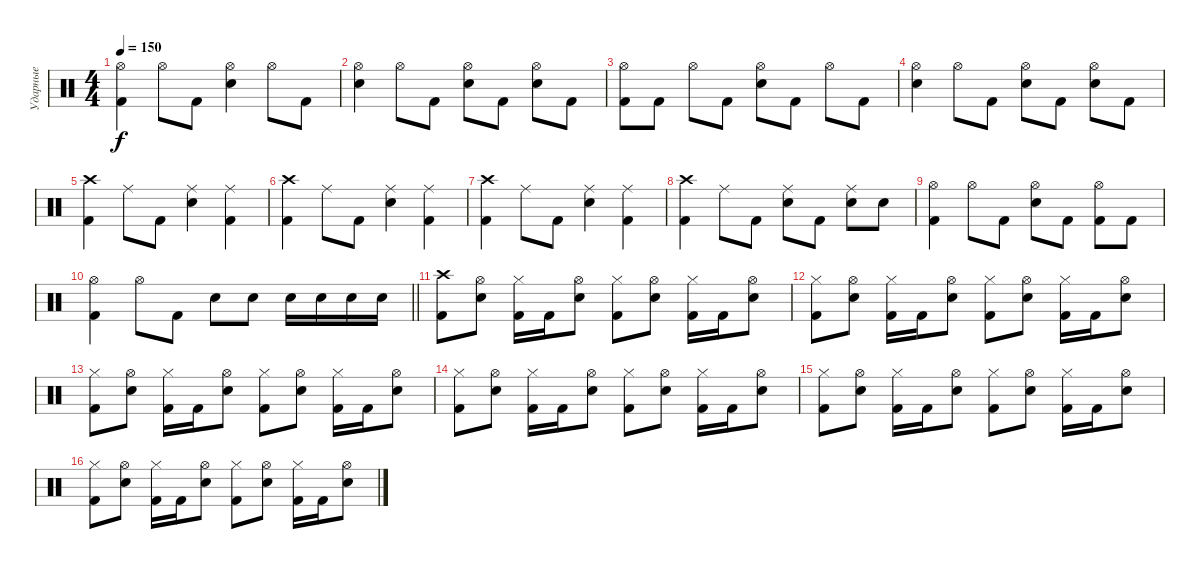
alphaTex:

\track ("Ударные" "Ударные") {instrument percussion}
\staff {score}
\articulation defaults
\ts (4 4)
\tempo 150
\clef neutral
\ks c
("Hi-Hat (open)" "Kick (hit) 2").4{dy f} "Hi-Hat (open)".8 "Kick (hit) 2".8 ("Hi-Hat (open)" "Snare (hit) 2").4 "Hi-Hat (open)".8 "Kick (hit) 2".8 |
("Hi-Hat (open)" "Snare (hit) 2").4 "Hi-Hat (open)".8 "Kick (hit) 2".8 ("Hi-Hat (open)" "Snare (hit) 2").8 "Kick (hit) 2".8 ("Hi-Hat (open)" "Snare (hit) 2").8 "Kick (hit) 2".8 |
("Hi-Hat (open)" "Kick (hit) 2").8 "Kick (hit) 2".8 "Hi-Hat (open)".8 "Kick (hit) 2".8 ("Hi-Hat (open)" "Snare (hit) 2").8 "Kick (hit) 2".8 "Hi-Hat (open)".8 "Kick (hit) 2".8 |
("Hi-Hat (open)" "Snare (hit) 2").4 "Hi-Hat (open)".8 "Kick (hit) 2".8 ("Hi-Hat (open)" "Snare (hit) 2").8 "Kick (hit) 2".8 ("Hi-Hat (open)" "Snare (hit) 2").8 "Kick (hit) 2".8 |
("Crash high (hit)" "Kick (hit) 2").4 "Ride (middle)".8 "Kick (hit) 2".8 ("Ride (middle)" "Snare (hit) 2").4 ("Ride (middle)" "Kick (hit) 2").4 |
("Crash high (hit)" "Kick (hit) 2").4 "Ride (middle)".8 "Kick (hit) 2".8 ("Ride (middle)" "Snare (hit) 2").4 ("Ride (middle)" "Kick (hit) 2").4 |
("Crash high (hit)" "Kick (hit) 2").4 "Ride (middle)".8 "Kick (hit) 2".8 ("Ride (middle)" "Snare (hit) 2").4 ("Ride (middle)" "Kick (hit) 2").4 |
("Crash high (hit)" "Kick (hit) 2").4 "Ride (middle)".8 "Kick (hit) 2".8 ("Ride (middle)" "Snare (hit) 2").8 "Kick (hit) 2".8 ("Ride (middle)" "Snare (hit) 2").8 "Snare (hit) 2".8 |
("Hi-Hat (open)" "Kick (hit) 2").4 "Hi-Hat (open)".8 "Kick (hit) 2".8 ("Hi-Hat (open)" "Snare (hit) 2").8 "Kick (hit) 2".8 ("Hi-Hat (open)" "Kick (hit) 2").8 "Kick (hit) 2".8 |
\barLineRight lightlight
("Hi-Hat (open)" "Kick (hit) 2").4 "Hi-Hat (open)".8 "Kick (hit) 2".8 "Snare (hit) 2".8 "Snare (hit) 2".8 "Snare (hit) 2".16 "Snare (hit) 2".16 "Snare (hit) 2".16 "Snare (hit) 2".16 |
("Crash high (hit)" "Kick (hit) 2").8 ("Hi-Hat (open)" "Snare (hit) 2").8 ("Hi-Hat (closed)" "Kick (hit) 2").16 "Kick (hit) 2".16 ("Hi-Hat (open)" "Snare (hit) 2").8 ("Hi-Hat (closed)" "Kick (hit) 2").8 ("Hi-Hat (open)" "Snare (hit) 2").8 ("Hi-Hat (closed)" "Kick (hit) 2").16 "Kick (hit) 2".16 ("Hi-Hat (open)" "Snare (hit) 2").8 |
("Hi-Hat (closed)" "Kick (hit) 2").8 ("Hi-Hat (open)" "Snare (hit) 2").8 ("Hi-Hat (closed)" "Kick (hit) 2").16 "Kick (hit) 2".16 ("Hi-Hat (open)" "Snare (hit) 2").8 ("Hi-Hat (closed)" "Kick (hit) 2").8 ("Hi-Hat (open)" "Snare (hit) 2").8 ("Hi-Hat (closed)" "Kick (hit) 2").16 "Kick (hit) 2".16 ("Hi-Hat (open)" "Snare (hit) 2").8 |
("Hi-Hat (closed)" "Kick (hit) 2").8 ("Hi-Hat (open)" "Snare (hit) 2").8 ("Hi-Hat (closed)" "Kick (hit) 2").16 "Kick (hit) 2".16 ("Hi-Hat (open)" "Snare (hit) 2").8 ("Hi-Hat (closed)" "Kick (hit) 2").8 ("Hi-Hat (open)" "Snare (hit) 2").8 ("Hi-Hat (closed)" "Kick (hit) 2").16 "Kick (hit) 2".16 ("Hi-Hat (open)" "Snare (hit) 2").8 |
("Hi-Hat (closed)" "Kick (hit) 2").8 ("Hi-Hat (open)" "Snare (hit) 2").8 ("Hi-Hat (closed)" "Kick (hit) 2").16 "Kick (hit) 2".16 ("Hi-Hat (open)" "Snare (hit) 2").8 ("Hi-Hat (closed)" "Kick (hit) 2").8 ("Hi-Hat (open)" "Snare (hit) 2").8 ("Hi-Hat (closed)" "Kick (hit) 2").16 "Kick (hit) 2".16 ("Hi-Hat (open)" "Snare (hit) 2").8 |
("Hi-Hat (closed)" "Kick (hit) 2").8 ("Hi-Hat (open)" "Snare (hit) 2").8 ("Hi-Hat (closed)" "Kick (hit) 2").16 "Kick (hit) 2".16 ("Hi-Hat (open)" "Snare (hit) 2").8 ("Hi-Hat (closed)" "Kick (hit) 2").8 ("Hi-Hat (open)" "Snare (hit) 2").8 ("Hi-Hat (closed)" "Kick (hit) 2").16 "Kick (hit) 2".16 ("Hi-Hat (open)" "Snare (hit) 2").8 |
("Hi-Hat (closed)" "Kick (hit) 2").8 ("Hi-Hat (open)" "Snare (hit) 2").8 ("Hi-Hat (closed)" "Kick (hit) 2").16 "Kick (hit) 2".16 ("Hi-Hat (open)" "Snare (hit) 2").8 ("Hi-Hat (closed)" "Kick (hit) 2").8 ("Hi-Hat (open)" "Snare (hit) 2").8 ("Hi-Hat (closed)" "Kick (hit) 2").16 "Kick (hit) 2".16 ("Hi-Hat (open)" "Snare (hit) 2").8
